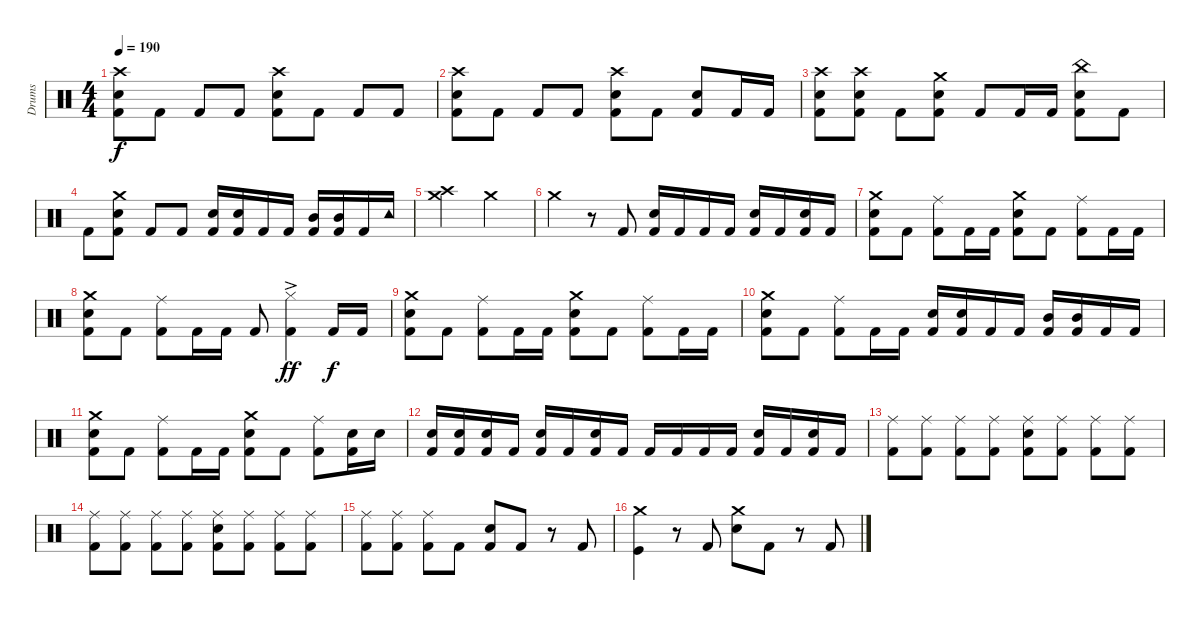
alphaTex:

\track ("Drums" "Drums") {instrument percussion}
\staff {score}
\articulation defaults
\ts (4 4)
\tempo 190
\clef neutral
\ks c
("Crash high (hit)" "Electric Snare (hit)" "Kick (hit) 2").8{dy f} "Kick (hit) 2".8 "Kick (hit) 2".8 "Kick (hit) 2".8 ("Crash high (hit)" "Electric Snare (hit)" "Kick (hit) 2").8 "Kick (hit) 2".8 "Kick (hit) 2".8 "Kick (hit) 2".8 |
("Crash high (hit)" "Electric Snare (hit)" "Kick (hit) 2").8 "Kick (hit) 2".8 "Kick (hit) 2".8 "Kick (hit) 2".8 ("Crash high (hit)" "Electric Snare (hit)" "Kick (hit) 2").8 "Kick (hit) 2".8 ("Electric Snare (hit)" "Kick (hit) 2").8 "Kick (hit) 2".16 "Kick (hit) 2".16 |
("Crash high (hit)" "Electric Snare (hit)" "Kick (hit) 2").8 ("Crash high (hit)" "Electric Snare (hit)" "Kick (hit) 2").8 "Kick (hit) 2".8 ("Crash medium (hit)" "Electric Snare (hit)" "Kick (hit) 2").8 "Kick (hit) 2".8 "Kick (hit) 2".16 "Kick (hit) 2".16 ("China (hit)" "Electric Snare (hit)" "Kick (hit) 2").8 "Kick (hit) 2".8 |
"Kick (hit) 2".8 ("Crash medium (hit)" "Electric Snare (hit)" "Kick (hit) 2").8 "Kick (hit) 2".8 "Kick (hit) 2".8 ("Electric Snare (hit)" "Kick (hit) 2").16 ("Electric Snare (hit)" "Kick (hit) 2").16 "Kick (hit) 2".16 "Kick (hit) 2".16 ("Mid Tom (hit)" "Kick (hit) 2").16 ("Mid Tom (hit)" "Kick (hit) 2").16 "Kick (hit) 2".16 "Tambourine (hit)".16 |
("Crash high (hit)" "Crash medium (hit)").2 "Crash medium (hit)".2 |
"Crash medium (hit)".4 r.8 "Kick (hit) 2".8 ("Electric Snare (hit)" "Kick (hit) 2").16 "Kick (hit) 2".16 "Kick (hit) 2".16 "Kick (hit) 2".16 ("Electric Snare (hit)" "Kick (hit) 2").16 "Kick (hit) 2".16 ("Electric Snare (hit)" "Kick (hit) 2").16 "Kick (hit) 2".16 |
("Crash medium (hit)" "Electric Snare (hit)" "Kick (hit) 2").8 "Kick (hit) 2".8 ("Ride (middle)" "Kick (hit) 2").8 "Kick (hit) 2".16 "Kick (hit) 2".16 ("Crash medium (hit)" "Electric Snare (hit)" "Kick (hit) 2").8 "Kick (hit) 2".8 ("Ride (middle)" "Kick (hit) 2").8 "Kick (hit) 2".16 "Kick (hit) 2".16 |
("Crash medium (hit)" "Electric Snare (hit)" "Kick (hit) 2").8 "Kick (hit) 2".8 ("Ride (middle)" "Kick (hit) 2").8 "Kick (hit) 2".16 "Kick (hit) 2".16 "Kick (hit) 2".8 ("Hi-Hat (closed)"{ac} "Kick (hit) 2").4{dy ff} "Kick (hit) 2".16{dy f} "Kick (hit) 2".16 |
("Crash medium (hit)" "Electric Snare (hit)" "Kick (hit) 2").8 "Kick (hit) 2".8 ("Ride (middle)" "Kick (hit) 2").8 "Kick (hit) 2".16 "Kick (hit) 2".16 ("Crash medium (hit)" "Electric Snare (hit)" "Kick (hit) 2").8 "Kick (hit) 2".8 ("Ride (middle)" "Kick (hit) 2").8 "Kick (hit) 2".16 "Kick (hit) 2".16 |
("Crash medium (hit)" "Electric Snare (hit)" "Kick (hit) 2").8 "Kick (hit) 2".8 ("Ride (middle)" "Kick (hit) 2").8 "Kick (hit) 2".16 "Kick (hit) 2".16 ("Electric Snare (hit)" "Kick (hit) 2").16 ("Electric Snare (hit)" "Kick (hit) 2").16 "Kick (hit) 2".16 "Kick (hit) 2".16 ("Mid Tom (hit)" "Kick (hit) 2").16 ("Mid Tom (hit)" "Kick (hit) 2").16 "Kick (hit) 2".16 "Kick (hit) 2".16 |
("Crash medium (hit)" "Electric Snare (hit)" "Kick (hit) 2").8 "Kick (hit) 2".8 ("Ride (middle)" "Kick (hit) 2").8 "Kick (hit) 2".16 "Kick (hit) 2".16 ("Crash medium (hit)" "Electric Snare (hit)" "Kick (hit) 2").8 "Kick (hit) 2".8 ("Ride (middle)" "Kick (hit) 2").8 ("Electric Snare (hit)" "Kick (hit) 2").16 "Electric Snare (hit)".16 |
("Electric Snare (hit)" "Kick (hit) 2").16 ("Electric Snare (hit)" "Kick (hit) 2").16 ("Electric Snare (hit)" "Kick (hit) 2").16 "Kick (hit) 2".16 ("Electric Snare (hit)" "Kick (hit) 2").16 "Kick (hit) 2".16 ("Electric Snare (hit)" "Kick (hit) 2").16 "Kick (hit) 2".16 "Kick (hit) 2".16 "Kick (hit) 2".16 "Kick (hit) 2".16 "Kick (hit) 2".16 ("Electric Snare (hit)" "Kick (hit) 2").16 "Kick (hit) 2".16 ("Electric Snare (hit)" "Kick (hit) 2").16 "Kick (hit) 2".16 |
("Ride (middle)" "Kick (hit) 2").8 ("Ride (middle)" "Kick (hit) 2").8 ("Ride (middle)" "Kick (hit) 2").8 ("Ride (middle)" "Kick (hit) 2").8 ("Ride (middle)" "Electric Snare (hit)" "Kick (hit) 2").8 ("Ride (middle)" "Kick (hit) 2").8 ("Ride (middle)" "Kick (hit) 2").8 ("Ride (middle)" "Kick (hit) 2").8 |
("Ride (middle)" "Kick (hit) 2").8 ("Ride (middle)" "Kick (hit) 2").8 ("Ride (middle)" "Kick (hit) 2").8 ("Ride (middle)" "Kick (hit) 2").8 ("Ride (middle)" "Electric Snare (hit)" "Kick (hit) 2").8 ("Ride (middle)" "Kick (hit) 2").8 ("Ride (middle)" "Kick (hit) 2").8 ("Ride (middle)" "Kick (hit) 2").8 |
("Ride (middle)" "Kick (hit) 2").8 ("Ride (middle)" "Kick (hit) 2").8 ("Ride (middle)" "Kick (hit) 2").8 "Kick (hit) 2".8 ("Electric Snare (hit)" "Kick (hit) 2").8 "Kick (hit) 2".8 r.8 "Kick (hit) 2".8 |
("Crash medium (hit)" "Kick (hit)").4 r.8 "Kick (hit) 2".8 ("Crash medium (hit)" "Electric Snare (hit)").8 "Kick (hit) 2".8 r.8 "Kick (hit) 2".8
